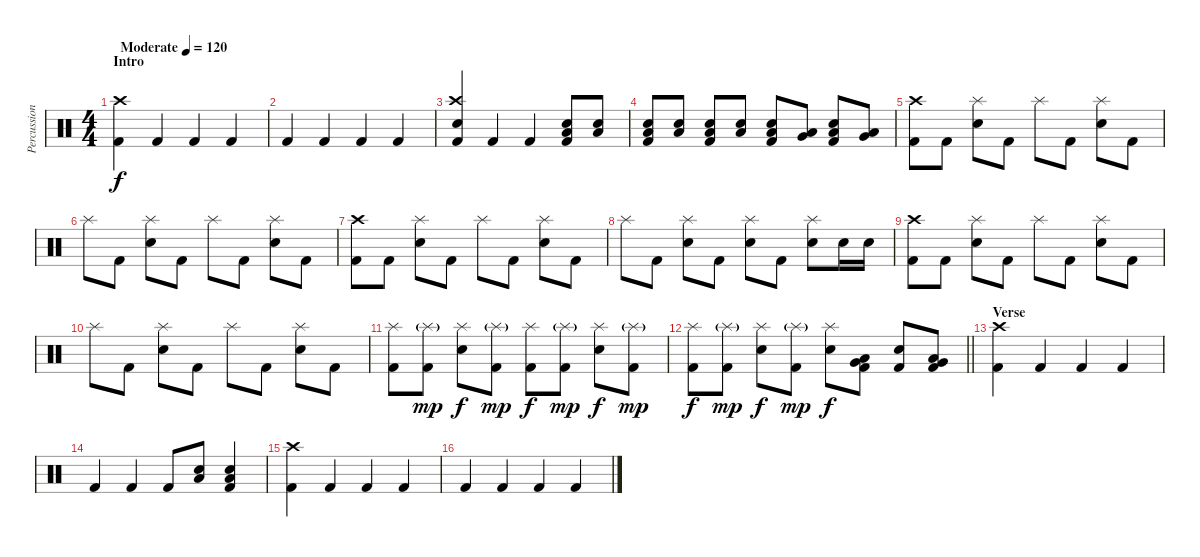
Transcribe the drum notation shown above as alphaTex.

\track ("Percussion" "Percussion") {instrument percussion}
\staff {score}
\articulation defaults
\ts (4 4)
\section ("" "Intro")
\tempo (120 "Moderate")
\clef neutral
\ks c
("Kick (hit) 2" "Crash high (hit)").4{dy f} "Kick (hit) 2".4 "Kick (hit) 2".4 "Kick (hit) 2".4 |
"Kick (hit) 2".4 "Kick (hit) 2".4 "Kick (hit) 2".4 "Kick (hit) 2".4 |
("Kick (hit) 2" "Crash high (hit)" "Electric Snare (hit)").4 "Kick (hit) 2".4 "Kick (hit) 2".4 ("Kick (hit) 2" "Electric Snare (hit)" "Low Floor Tom (hit)").8 ("Electric Snare (hit)" "Low Floor Tom (hit)").8 |
("Kick (hit) 2" "Electric Snare (hit)" "Low Floor Tom (hit)").8 ("Electric Snare (hit)" "Low Floor Tom (hit)").8 ("Kick (hit) 2" "Electric Snare (hit)" "Low Floor Tom (hit)").8 ("Electric Snare (hit)" "Low Floor Tom (hit)").8 ("Kick (hit) 2" "Electric Snare (hit)" "Low Floor Tom (hit)").8 ("Low Tom (hit)" "Very Low Tom (hit)").8 ("Kick (hit) 2" "Electric Snare (hit)" "Low Floor Tom (hit)").8 ("Low Tom (hit)" "Very Low Tom (hit)").8 |
("Crash high (hit)" "Kick (hit) 2").8 "Kick (hit) 2".8 ("Splash (hit)" "Electric Snare (hit)").8 "Kick (hit) 2".8 "Splash (hit)".8 "Kick (hit) 2".8 ("Splash (hit)" "Electric Snare (hit)").8 "Kick (hit) 2".8 |
"Splash (hit)".8 "Kick (hit) 2".8 ("Splash (hit)" "Electric Snare (hit)").8 "Kick (hit) 2".8 "Splash (hit)".8 "Kick (hit) 2".8 ("Splash (hit)" "Electric Snare (hit)").8 "Kick (hit) 2".8 |
("Crash high (hit)" "Kick (hit) 2").8 "Kick (hit) 2".8 ("Splash (hit)" "Electric Snare (hit)").8 "Kick (hit) 2".8 "Splash (hit)".8 "Kick (hit) 2".8 ("Splash (hit)" "Electric Snare (hit)").8 "Kick (hit) 2".8 |
"Splash (hit)".8 "Kick (hit) 2".8 ("Splash (hit)" "Electric Snare (hit)").8 "Kick (hit) 2".8 ("Splash (hit)" "Electric Snare (hit)").8 "Kick (hit) 2".8 ("Splash (hit)" "Electric Snare (hit)").8 "Electric Snare (hit)".16 "Electric Snare (hit)".16 |
("Crash high (hit)" "Kick (hit) 2").8 "Kick (hit) 2".8 ("Splash (hit)" "Electric Snare (hit)").8 "Kick (hit) 2".8 "Splash (hit)".8 "Kick (hit) 2".8 ("Splash (hit)" "Electric Snare (hit)").8 "Kick (hit) 2".8 |
"Splash (hit)".8 "Kick (hit) 2".8 ("Splash (hit)" "Electric Snare (hit)").8 "Kick (hit) 2".8 "Splash (hit)".8 "Kick (hit) 2".8 ("Splash (hit)" "Electric Snare (hit)").8 "Kick (hit) 2".8 |
("Splash (hit)" "Kick (hit) 2").8 ("Splash (hit)"{g} "Kick (hit) 2").8{dy mp} ("Splash (hit)" "Electric Snare (hit)").8{dy f} ("Splash (hit)"{g} "Kick (hit) 2").8{dy mp} ("Splash (hit)" "Kick (hit) 2").8{dy f} ("Splash (hit)"{g} "Kick (hit) 2").8{dy mp} ("Splash (hit)" "Electric Snare (hit)").8{dy f} ("Splash (hit)"{g} "Kick (hit) 2").8{dy mp} |
\barLineRight lightlight
("Splash (hit)" "Kick (hit) 2").8{dy f} ("Splash (hit)"{g} "Kick (hit) 2").8{dy mp} ("Splash (hit)" "Electric Snare (hit)").8{dy f} ("Splash (hit)"{g} "Kick (hit) 2").8{dy mp} ("Splash (hit)" "Electric Snare (hit)").8{dy f} ("Very Low Tom (hit)" "Low Tom (hit)" "Kick (hit) 2").8 ("Kick (hit) 2" "Electric Snare (hit)").8 ("Very Low Tom (hit)" "Low Tom (hit)" "Kick (hit) 2").8 |
\section ("" "Verse")
("Kick (hit) 2" "Crash high (hit)").4 "Kick (hit) 2".4 "Kick (hit) 2".4 "Kick (hit) 2".4 |
"Kick (hit) 2".4 "Kick (hit) 2".4 "Kick (hit) 2".8 ("Electric Snare (hit)" "Low Floor Tom (hit)").8 ("Kick (hit) 2" "Electric Snare (hit)" "Low Floor Tom (hit)").4 |
("Kick (hit) 2" "Crash high (hit)").4 "Kick (hit) 2".4 "Kick (hit) 2".4 "Kick (hit) 2".4 |
"Kick (hit) 2".4 "Kick (hit) 2".4 "Kick (hit) 2".4 "Kick (hit) 2".4
